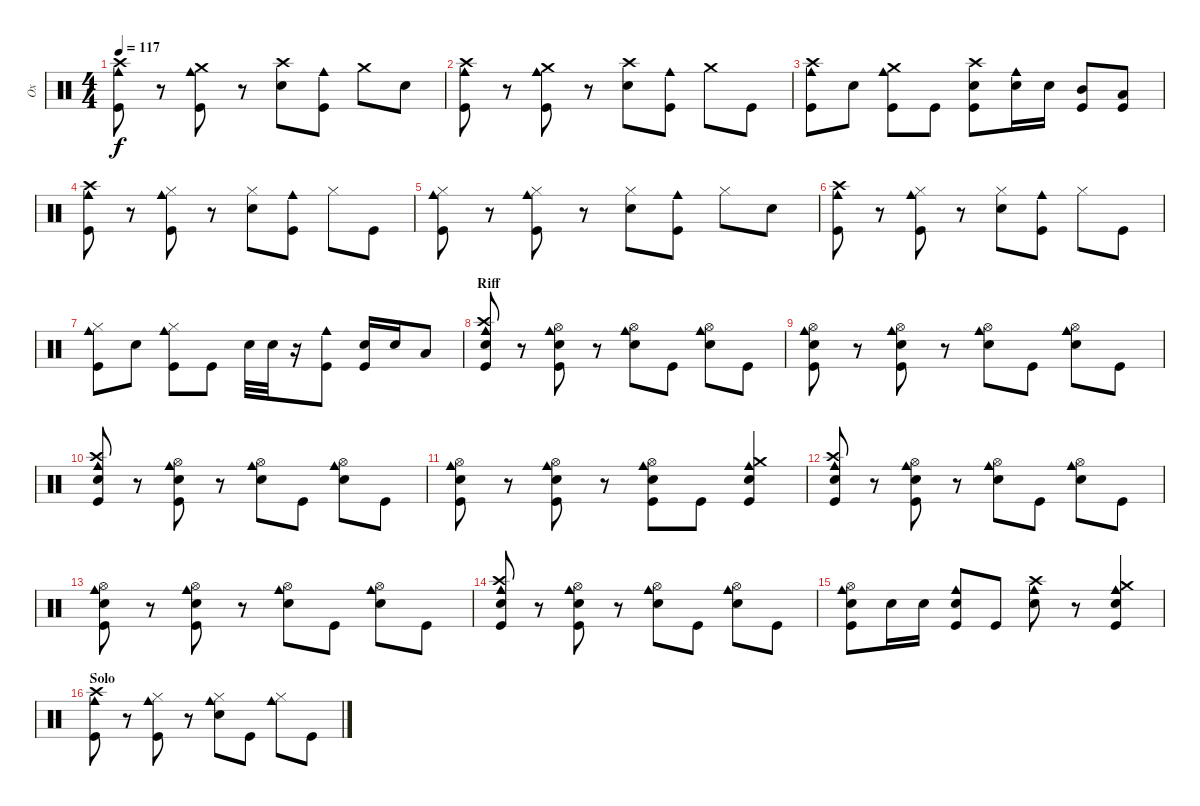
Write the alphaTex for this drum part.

\track ("Ox" "Ox") {instrument percussion}
\staff {score}
\articulation defaults
\ts (4 4)
\tempo 117
\clef neutral
\ks c
("Kick (hit)" "Crash high (hit)" "Cowbell medium (hit)").8{dy f} r.8 ("Kick (hit)" "Crash medium (hit)" "Cowbell medium (hit)").8 r.8 ("Snare (hit) 2" "Crash high (hit)").8 ("Kick (hit)" "Cowbell medium (hit)").8 "Crash medium (hit)".8 "Snare (hit) 2".8 |
("Kick (hit)" "Crash high (hit)" "Cowbell medium (hit)").8 r.8 ("Kick (hit)" "Crash medium (hit)" "Cowbell medium (hit)").8 r.8 ("Snare (hit) 2" "Crash high (hit)").8 ("Kick (hit)" "Cowbell medium (hit)").8 "Crash medium (hit)".8 "Kick (hit)".8 |
("Kick (hit)" "Crash high (hit)" "Cowbell medium (hit)").8 "Snare (hit) 2".8 ("Kick (hit)" "Crash medium (hit)" "Cowbell medium (hit)").8 "Kick (hit)".8 ("Snare (hit) 2" "Crash high (hit)" "Kick (hit)").8 ("Snare (hit) 2" "Cowbell medium (hit)").16 "Snare (hit) 2".16 ("Mid Tom (hit)" "Kick (hit)").8 ("Low Floor Tom (hit)" "Kick (hit)").8 |
("Kick (hit)" "Crash high (hit)" "Cowbell medium (hit)").8 r.8 ("Kick (hit)" "Hi-Hat (closed)" "Cowbell medium (hit)").8 r.8 ("Snare (hit) 2" "Hi-Hat (closed)").8 ("Kick (hit)" "Cowbell medium (hit)").8 "Hi-Hat (closed)".8 "Kick (hit)".8 |
("Kick (hit)" "Hi-Hat (closed)" "Cowbell medium (hit)").8 r.8 ("Kick (hit)" "Hi-Hat (closed)" "Cowbell medium (hit)").8 r.8 ("Snare (hit) 2" "Hi-Hat (closed)").8 ("Kick (hit)" "Cowbell medium (hit)").8 "Hi-Hat (closed)".8 "Snare (hit) 2".8 |
("Kick (hit)" "Cowbell medium (hit)" "Crash high (hit)").8 r.8 ("Kick (hit)" "Hi-Hat (closed)" "Cowbell medium (hit)").8 r.8 ("Snare (hit) 2" "Hi-Hat (closed)").8 ("Kick (hit)" "Cowbell medium (hit)").8 "Hi-Hat (closed)".8 "Kick (hit)".8 |
("Kick (hit)" "Hi-Hat (closed)" "Cowbell medium (hit)").8 "Snare (hit) 2".8 ("Kick (hit)" "Hi-Hat (closed)" "Cowbell medium (hit)").8 "Kick (hit)".8 "Snare (hit) 2".32 "Snare (hit) 2".32 r.16 ("Kick (hit)" "Cowbell medium (hit)").8 ("Kick (hit)" "Snare (hit) 2").16 "Snare (hit) 2".16 "Low Floor Tom (hit)".8 |
\section ("" "Riff")
("Snare (hit) 2" "Kick (hit)" "Crash high (hit)" "Cowbell medium (hit)").8 r.8 ("Snare (hit) 2" "Kick (hit)" "Cowbell medium (hit)" "Hi-Hat (open)").8 r.8 ("Snare (hit) 2" "Cowbell medium (hit)" "Hi-Hat (open)").8 "Kick (hit)".8 ("Snare (hit) 2" "Cowbell medium (hit)" "Hi-Hat (open)").8 "Kick (hit)".8 |
("Snare (hit) 2" "Kick (hit)" "Cowbell medium (hit)" "Hi-Hat (open)").8 r.8 ("Snare (hit) 2" "Kick (hit)" "Cowbell medium (hit)" "Hi-Hat (open)").8 r.8 ("Snare (hit) 2" "Cowbell medium (hit)" "Hi-Hat (open)").8 "Kick (hit)".8 ("Snare (hit) 2" "Cowbell medium (hit)" "Hi-Hat (open)").8 "Kick (hit)".8 |
("Snare (hit) 2" "Kick (hit)" "Crash high (hit)" "Cowbell medium (hit)").8 r.8 ("Snare (hit) 2" "Kick (hit)" "Hi-Hat (open)" "Cowbell medium (hit)").8 r.8 ("Snare (hit) 2" "Hi-Hat (open)" "Cowbell medium (hit)").8 "Kick (hit)".8 ("Snare (hit) 2" "Hi-Hat (open)" "Cowbell medium (hit)").8 "Kick (hit)".8 |
("Snare (hit) 2" "Kick (hit)" "Cowbell medium (hit)" "Hi-Hat (open)").8 r.8 ("Snare (hit) 2" "Kick (hit)" "Cowbell medium (hit)" "Hi-Hat (open)").8 r.8 ("Snare (hit) 2" "Cowbell medium (hit)" "Kick (hit)" "Hi-Hat (open)").8 "Kick (hit)".8 ("Snare (hit) 2" "Crash medium (hit)" "Cowbell medium (hit)" "Kick (hit)").4 |
("Snare (hit) 2" "Kick (hit)" "Crash high (hit)" "Cowbell medium (hit)").8 r.8 ("Snare (hit) 2" "Kick (hit)" "Cowbell medium (hit)" "Hi-Hat (open)").8 r.8 ("Snare (hit) 2" "Cowbell medium (hit)" "Hi-Hat (open)").8 "Kick (hit)".8 ("Snare (hit) 2" "Cowbell medium (hit)" "Hi-Hat (open)").8 "Kick (hit)".8 |
("Snare (hit) 2" "Kick (hit)" "Cowbell medium (hit)" "Hi-Hat (open)").8 r.8 ("Snare (hit) 2" "Kick (hit)" "Cowbell medium (hit)" "Hi-Hat (open)").8 r.8 ("Snare (hit) 2" "Cowbell medium (hit)" "Hi-Hat (open)").8 "Kick (hit)".8 ("Snare (hit) 2" "Cowbell medium (hit)" "Hi-Hat (open)").8 "Kick (hit)".8 |
("Snare (hit) 2" "Kick (hit)" "Crash high (hit)" "Cowbell medium (hit)").8 r.8 ("Snare (hit) 2" "Kick (hit)" "Hi-Hat (open)" "Cowbell medium (hit)").8 r.8 ("Snare (hit) 2" "Hi-Hat (open)" "Cowbell medium (hit)").8 "Kick (hit)".8 ("Snare (hit) 2" "Hi-Hat (open)" "Cowbell medium (hit)").8 "Kick (hit)".8 |
("Snare (hit) 2" "Kick (hit)" "Cowbell medium (hit)" "Hi-Hat (open)").8 "Snare (hit) 2".16 "Snare (hit) 2".16 ("Snare (hit) 2" "Kick (hit)" "Cowbell medium (hit)").8 "Kick (hit)".8 ("Snare (hit) 2" "Cowbell medium (hit)" "Crash high (hit)").8 r.8 ("Snare (hit) 2" "Crash medium (hit)" "Cowbell medium (hit)" "Kick (hit)").4 |
\section ("" "Solo")
("Kick (hit)" "Crash high (hit)" "Cowbell medium (hit)").8 r.8 ("Kick (hit)" "Hi-Hat (closed)" "Cowbell medium (hit)").8 r.8 ("Snare (hit) 2" "Hi-Hat (closed)" "Cowbell medium (hit)").8 "Kick (hit)".8 ("Hi-Hat (closed)" "Cowbell medium (hit)").8 "Kick (hit)".8
